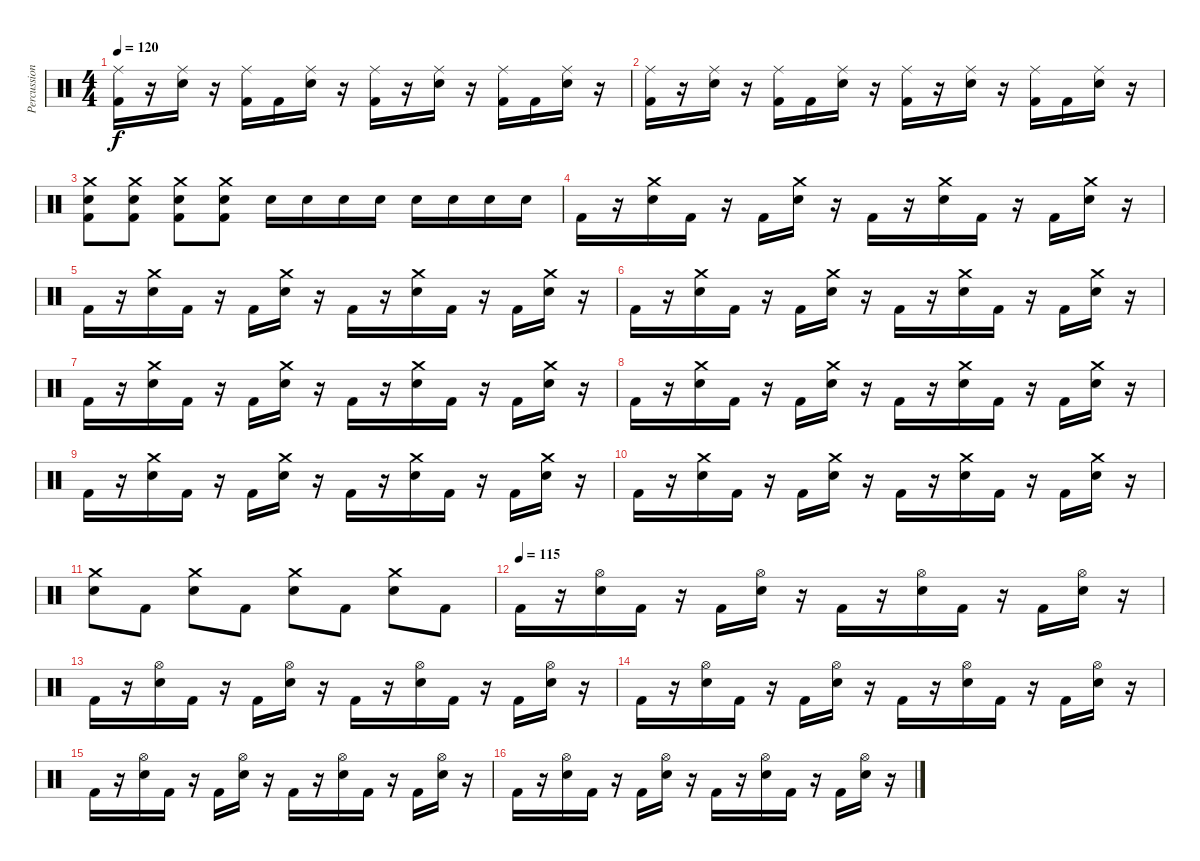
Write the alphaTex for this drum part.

\track ("Percussion" "Percussion") {instrument percussion}
\staff {score}
\articulation defaults
\ts (4 4)
\tempo 120
\clef neutral
\ks c
("Ride (middle)" "Kick (hit) 2").16{dy f} r.16 ("Ride (middle)" "Electric Snare (hit)").16 r.16 ("Ride (middle)" "Kick (hit) 2").16 "Kick (hit) 2".16 ("Ride (middle)" "Electric Snare (hit)").16 r.16 ("Ride (middle)" "Kick (hit) 2").16 r.16 ("Ride (middle)" "Electric Snare (hit)").16 r.16 ("Ride (middle)" "Kick (hit) 2").16 "Kick (hit) 2".16 ("Ride (middle)" "Electric Snare (hit)").16 r.16 |
("Ride (middle)" "Kick (hit) 2").16 r.16 ("Ride (middle)" "Electric Snare (hit)").16 r.16 ("Ride (middle)" "Kick (hit) 2").16 "Kick (hit) 2".16 ("Ride (middle)" "Electric Snare (hit)").16 r.16 ("Ride (middle)" "Kick (hit) 2").16 r.16 ("Ride (middle)" "Electric Snare (hit)").16 r.16 ("Ride (middle)" "Kick (hit) 2").16 "Kick (hit) 2".16 ("Ride (middle)" "Electric Snare (hit)").16 r.16 |
("Crash medium (hit)" "Electric Snare (hit)" "Kick (hit) 2").8 ("Crash medium (hit)" "Electric Snare (hit)" "Kick (hit) 2").8 ("Crash medium (hit)" "Electric Snare (hit)" "Kick (hit) 2").8 ("Crash medium (hit)" "Electric Snare (hit)" "Kick (hit) 2").8 "Electric Snare (hit)".16 "Electric Snare (hit)".16 "Electric Snare (hit)".16 "Electric Snare (hit)".16 "Electric Snare (hit)".16 "Electric Snare (hit)".16 "Electric Snare (hit)".16 "Electric Snare (hit)".16 |
"Kick (hit) 2".16 r.16 ("Crash medium (hit)" "Electric Snare (hit)").16 "Kick (hit) 2".16 r.16 "Kick (hit) 2".16 ("Crash medium (hit)" "Electric Snare (hit)").16 r.16 "Kick (hit) 2".16 r.16 ("Crash medium (hit)" "Electric Snare (hit)").16 "Kick (hit) 2".16 r.16 "Kick (hit) 2".16 ("Crash medium (hit)" "Electric Snare (hit)").16 r.16 |
"Kick (hit) 2".16 r.16 ("Crash medium (hit)" "Electric Snare (hit)").16 "Kick (hit) 2".16 r.16 "Kick (hit) 2".16 ("Crash medium (hit)" "Electric Snare (hit)").16 r.16 "Kick (hit) 2".16 r.16 ("Crash medium (hit)" "Electric Snare (hit)").16 "Kick (hit) 2".16 r.16 "Kick (hit) 2".16 ("Crash medium (hit)" "Electric Snare (hit)").16 r.16 |
"Kick (hit) 2".16 r.16 ("Crash medium (hit)" "Electric Snare (hit)").16 "Kick (hit) 2".16 r.16 "Kick (hit) 2".16 ("Crash medium (hit)" "Electric Snare (hit)").16 r.16 "Kick (hit) 2".16 r.16 ("Crash medium (hit)" "Electric Snare (hit)").16 "Kick (hit) 2".16 r.16 "Kick (hit) 2".16 ("Crash medium (hit)" "Electric Snare (hit)").16 r.16 |
"Kick (hit) 2".16 r.16 ("Crash medium (hit)" "Electric Snare (hit)").16 "Kick (hit) 2".16 r.16 "Kick (hit) 2".16 ("Crash medium (hit)" "Electric Snare (hit)").16 r.16 "Kick (hit) 2".16 r.16 ("Crash medium (hit)" "Electric Snare (hit)").16 "Kick (hit) 2".16 r.16 "Kick (hit) 2".16 ("Crash medium (hit)" "Electric Snare (hit)").16 r.16 |
"Kick (hit) 2".16 r.16 ("Crash medium (hit)" "Electric Snare (hit)").16 "Kick (hit) 2".16 r.16 "Kick (hit) 2".16 ("Crash medium (hit)" "Electric Snare (hit)").16 r.16 "Kick (hit) 2".16 r.16 ("Crash medium (hit)" "Electric Snare (hit)").16 "Kick (hit) 2".16 r.16 "Kick (hit) 2".16 ("Crash medium (hit)" "Electric Snare (hit)").16 r.16 |
"Kick (hit) 2".16 r.16 ("Crash medium (hit)" "Electric Snare (hit)").16 "Kick (hit) 2".16 r.16 "Kick (hit) 2".16 ("Crash medium (hit)" "Electric Snare (hit)").16 r.16 "Kick (hit) 2".16 r.16 ("Crash medium (hit)" "Electric Snare (hit)").16 "Kick (hit) 2".16 r.16 "Kick (hit) 2".16 ("Crash medium (hit)" "Electric Snare (hit)").16 r.16 |
"Kick (hit) 2".16 r.16 ("Crash medium (hit)" "Electric Snare (hit)").16 "Kick (hit) 2".16 r.16 "Kick (hit) 2".16 ("Crash medium (hit)" "Electric Snare (hit)").16 r.16 "Kick (hit) 2".16 r.16 ("Crash medium (hit)" "Electric Snare (hit)").16 "Kick (hit) 2".16 r.16 "Kick (hit) 2".16 ("Crash medium (hit)" "Electric Snare (hit)").16 r.16 |
("Crash medium (hit)" "Electric Snare (hit)").8 "Kick (hit) 2".8 ("Crash medium (hit)" "Electric Snare (hit)").8 "Kick (hit) 2".8 ("Crash medium (hit)" "Electric Snare (hit)").8 "Kick (hit) 2".8 ("Crash medium (hit)" "Electric Snare (hit)").8 "Kick (hit) 2".8 |
\tempo (115)
"Kick (hit) 2".16 r.16 ("Hi-Hat (open)" "Electric Snare (hit)").16 "Kick (hit) 2".16 r.16 "Kick (hit) 2".16 ("Hi-Hat (open)" "Electric Snare (hit)").16 r.16 "Kick (hit) 2".16 r.16 ("Hi-Hat (open)" "Electric Snare (hit)").16 "Kick (hit) 2".16 r.16 "Kick (hit) 2".16 ("Hi-Hat (open)" "Electric Snare (hit)").16 r.16 |
"Kick (hit) 2".16 r.16 ("Hi-Hat (open)" "Electric Snare (hit)").16 "Kick (hit) 2".16 r.16 "Kick (hit) 2".16 ("Hi-Hat (open)" "Electric Snare (hit)").16 r.16 "Kick (hit) 2".16 r.16 ("Hi-Hat (open)" "Electric Snare (hit)").16 "Kick (hit) 2".16 r.16 "Kick (hit) 2".16 ("Hi-Hat (open)" "Electric Snare (hit)").16 r.16 |
"Kick (hit) 2".16 r.16 ("Hi-Hat (open)" "Electric Snare (hit)").16 "Kick (hit) 2".16 r.16 "Kick (hit) 2".16 ("Hi-Hat (open)" "Electric Snare (hit)").16 r.16 "Kick (hit) 2".16 r.16 ("Hi-Hat (open)" "Electric Snare (hit)").16 "Kick (hit) 2".16 r.16 "Kick (hit) 2".16 ("Hi-Hat (open)" "Electric Snare (hit)").16 r.16 |
"Kick (hit) 2".16 r.16 ("Hi-Hat (open)" "Electric Snare (hit)").16 "Kick (hit) 2".16 r.16 "Kick (hit) 2".16 ("Hi-Hat (open)" "Electric Snare (hit)").16 r.16 "Kick (hit) 2".16 r.16 ("Hi-Hat (open)" "Electric Snare (hit)").16 "Kick (hit) 2".16 r.16 "Kick (hit) 2".16 ("Hi-Hat (open)" "Electric Snare (hit)").16 r.16 |
"Kick (hit) 2".16 r.16 ("Hi-Hat (open)" "Electric Snare (hit)").16 "Kick (hit) 2".16 r.16 "Kick (hit) 2".16 ("Hi-Hat (open)" "Electric Snare (hit)").16 r.16 "Kick (hit) 2".16 r.16 ("Hi-Hat (open)" "Electric Snare (hit)").16 "Kick (hit) 2".16 r.16 "Kick (hit) 2".16 ("Hi-Hat (open)" "Electric Snare (hit)").16 r.16
